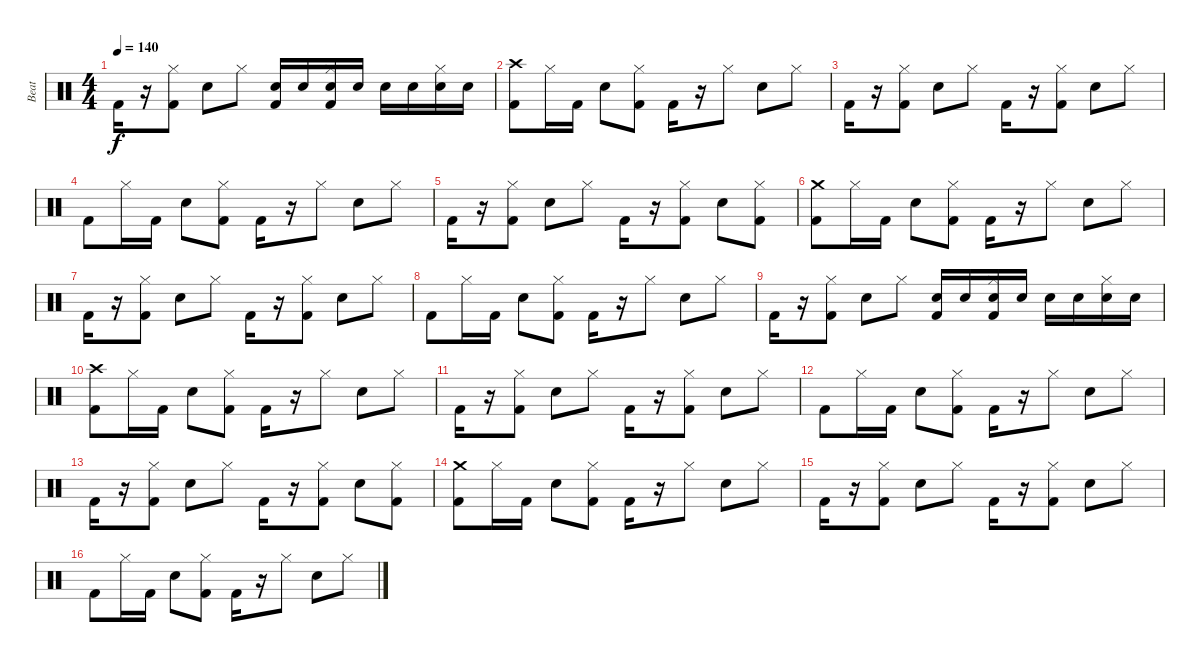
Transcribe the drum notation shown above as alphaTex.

\track ("Beat" "Beat") {instrument percussion}
\staff {score}
\articulation defaults
\ts (4 4)
\tempo 140
\clef neutral
\ks c "Kick (hit) 2".16{dy f}
r.16 ("Kick (hit) 2" "Hi-Hat (closed)").8 "Snare (hit) 2".8 "Hi-Hat (closed)".8 ("Kick (hit) 2" "Snare (hit) 2").16 "Snare (hit) 2".16 ("Kick (hit) 2" "Hi-Hat (closed)" "Snare (hit) 2").16 "Snare (hit) 2".16 "Snare (hit) 2".16 "Snare (hit) 2".16 ("Hi-Hat (closed)" "Snare (hit) 2").16 "Snare (hit) 2".16 |
("Kick (hit) 2" "Crash high (hit)").8 "Hi-Hat (closed)".16 "Kick (hit) 2".16 "Snare (hit) 2".8 ("Kick (hit) 2" "Hi-Hat (closed)").8 "Kick (hit) 2".16 r.16 "Hi-Hat (closed)".8 "Snare (hit) 2".8 "Hi-Hat (closed)".8 |
"Kick (hit) 2".16 r.16 ("Kick (hit) 2" "Hi-Hat (closed)").8 "Snare (hit) 2".8 "Hi-Hat (closed)".8 "Kick (hit) 2".16 r.16 ("Kick (hit) 2" "Hi-Hat (closed)").8 "Snare (hit) 2".8 "Hi-Hat (closed)".8 |
"Kick (hit) 2".8 "Hi-Hat (closed)".16 "Kick (hit) 2".16 "Snare (hit) 2".8 ("Kick (hit) 2" "Hi-Hat (closed)").8 "Kick (hit) 2".16 r.16 "Hi-Hat (closed)".8 "Snare (hit) 2".8 "Hi-Hat (closed)".8 |
"Kick (hit) 2".16 r.16 ("Kick (hit) 2" "Hi-Hat (closed)").8 "Snare (hit) 2".8 "Hi-Hat (closed)".8 "Kick (hit) 2".16 r.16 ("Kick (hit) 2" "Hi-Hat (closed)").8 "Snare (hit) 2".8 ("Kick (hit) 2" "Hi-Hat (closed)").8 |
("Kick (hit) 2" "Crash medium (hit)").8 "Hi-Hat (closed)".16 "Kick (hit) 2".16 "Snare (hit) 2".8 ("Kick (hit) 2" "Hi-Hat (closed)").8 "Kick (hit) 2".16 r.16 "Hi-Hat (closed)".8 "Snare (hit) 2".8 "Hi-Hat (closed)".8 |
"Kick (hit) 2".16 r.16 ("Kick (hit) 2" "Hi-Hat (closed)").8 "Snare (hit) 2".8 "Hi-Hat (closed)".8 "Kick (hit) 2".16 r.16 ("Kick (hit) 2" "Hi-Hat (closed)").8 "Snare (hit) 2".8 "Hi-Hat (closed)".8 |
"Kick (hit) 2".8 "Hi-Hat (closed)".16 "Kick (hit) 2".16 "Snare (hit) 2".8 ("Kick (hit) 2" "Hi-Hat (closed)").8 "Kick (hit) 2".16 r.16 "Hi-Hat (closed)".8 "Snare (hit) 2".8 "Hi-Hat (closed)".8 |
"Kick (hit) 2".16 r.16 ("Kick (hit) 2" "Hi-Hat (closed)").8 "Snare (hit) 2".8 "Hi-Hat (closed)".8 ("Kick (hit) 2" "Snare (hit) 2").16 "Snare (hit) 2".16 ("Kick (hit) 2" "Hi-Hat (closed)" "Snare (hit) 2").16 "Snare (hit) 2".16 "Snare (hit) 2".16 "Snare (hit) 2".16 ("Hi-Hat (closed)" "Snare (hit) 2").16 "Snare (hit) 2".16 |
("Kick (hit) 2" "Crash high (hit)").8 "Hi-Hat (closed)".16 "Kick (hit) 2".16 "Snare (hit) 2".8 ("Kick (hit) 2" "Hi-Hat (closed)").8 "Kick (hit) 2".16 r.16 "Hi-Hat (closed)".8 "Snare (hit) 2".8 "Hi-Hat (closed)".8 |
"Kick (hit) 2".16 r.16 ("Kick (hit) 2" "Hi-Hat (closed)").8 "Snare (hit) 2".8 "Hi-Hat (closed)".8 "Kick (hit) 2".16 r.16 ("Kick (hit) 2" "Hi-Hat (closed)").8 "Snare (hit) 2".8 "Hi-Hat (closed)".8 |
"Kick (hit) 2".8 "Hi-Hat (closed)".16 "Kick (hit) 2".16 "Snare (hit) 2".8 ("Kick (hit) 2" "Hi-Hat (closed)").8 "Kick (hit) 2".16 r.16 "Hi-Hat (closed)".8 "Snare (hit) 2".8 "Hi-Hat (closed)".8 |
"Kick (hit) 2".16 r.16 ("Kick (hit) 2" "Hi-Hat (closed)").8 "Snare (hit) 2".8 "Hi-Hat (closed)".8 "Kick (hit) 2".16 r.16 ("Kick (hit) 2" "Hi-Hat (closed)").8 "Snare (hit) 2".8 ("Kick (hit) 2" "Hi-Hat (closed)").8 |
("Kick (hit) 2" "Crash medium (hit)").8 "Hi-Hat (closed)".16 "Kick (hit) 2".16 "Snare (hit) 2".8 ("Kick (hit) 2" "Hi-Hat (closed)").8 "Kick (hit) 2".16 r.16 "Hi-Hat (closed)".8 "Snare (hit) 2".8 "Hi-Hat (closed)".8 |
"Kick (hit) 2".16 r.16 ("Kick (hit) 2" "Hi-Hat (closed)").8 "Snare (hit) 2".8 "Hi-Hat (closed)".8 "Kick (hit) 2".16 r.16 ("Kick (hit) 2" "Hi-Hat (closed)").8 "Snare (hit) 2".8 "Hi-Hat (closed)".8 |
"Kick (hit) 2".8 "Hi-Hat (closed)".16 "Kick (hit) 2".16 "Snare (hit) 2".8 ("Kick (hit) 2" "Hi-Hat (closed)").8 "Kick (hit) 2".16 r.16 "Hi-Hat (closed)".8 "Snare (hit) 2".8 "Hi-Hat (closed)".8
